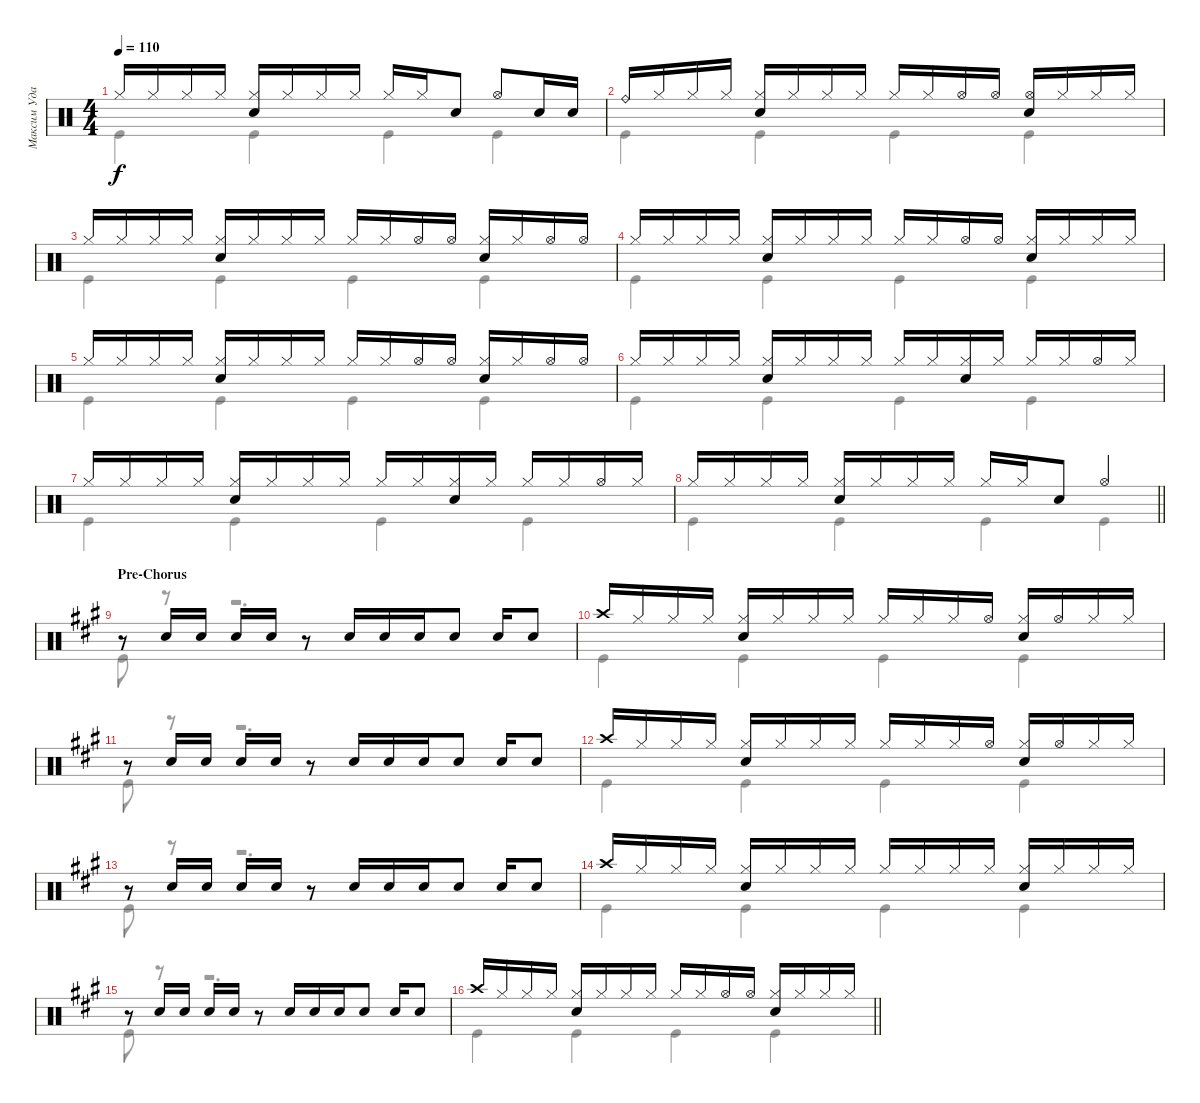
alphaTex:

\track ("Максим Удалов" "Максим Уда") {instrument percussion}
\staff {score}
\articulation defaults
\voice
\ts (4 4)
\tempo 110
\clef neutral
\ks c "Hi-Hat (closed)".16{dy f} "Hi-Hat (closed)".16 "Hi-Hat (closed)".16 "Hi-Hat (closed)".16
("Hi-Hat (closed)" "Snare (hit) 2").16 "Hi-Hat (closed)".16 "Hi-Hat (closed)".16 "Hi-Hat (closed)".16 "Hi-Hat (closed)".16 "Hi-Hat (closed)".16 "Snare (hit) 2".8 "Hi-Hat (open)".8 "Snare (hit) 2".16 "Snare (hit) 2".16 |
"Ride (bell)".16 "Hi-Hat (closed)".16 "Hi-Hat (closed)".16 "Hi-Hat (closed)".16 ("Hi-Hat (closed)" "Snare (hit) 2").16 "Hi-Hat (closed)".16 "Hi-Hat (closed)".16 "Hi-Hat (closed)".16 "Hi-Hat (closed)".16 "Hi-Hat (closed)".16 "Hi-Hat (open)".16 "Hi-Hat (open)".16 ("Hi-Hat (open)" "Snare (hit) 2").16 "Hi-Hat (closed)".16 "Hi-Hat (closed)".16 "Hi-Hat (closed)".16 |
"Hi-Hat (closed)".16 "Hi-Hat (closed)".16 "Hi-Hat (closed)".16 "Hi-Hat (closed)".16 ("Hi-Hat (closed)" "Snare (hit) 2").16 "Hi-Hat (closed)".16 "Hi-Hat (closed)".16 "Hi-Hat (closed)".16 "Hi-Hat (closed)".16 "Hi-Hat (closed)".16 "Hi-Hat (open)".16 "Hi-Hat (open)".16 ("Snare (hit) 2" "Hi-Hat (closed)").16 "Hi-Hat (closed)".16 "Hi-Hat (open)".16 "Hi-Hat (open)".16 |
"Hi-Hat (closed)".16 "Hi-Hat (closed)".16 "Hi-Hat (closed)".16 "Hi-Hat (closed)".16 ("Hi-Hat (closed)" "Snare (hit) 2").16 "Hi-Hat (closed)".16 "Hi-Hat (closed)".16 "Hi-Hat (closed)".16 "Hi-Hat (closed)".16 "Hi-Hat (closed)".16 "Hi-Hat (open)".16 "Hi-Hat (open)".16 ("Snare (hit) 2" "Hi-Hat (closed)").16 "Hi-Hat (closed)".16 "Hi-Hat (closed)".16 "Hi-Hat (closed)".16 |
"Hi-Hat (closed)".16 "Hi-Hat (closed)".16 "Hi-Hat (closed)".16 "Hi-Hat (closed)".16 ("Hi-Hat (closed)" "Snare (hit) 2").16 "Hi-Hat (closed)".16 "Hi-Hat (closed)".16 "Hi-Hat (closed)".16 "Hi-Hat (closed)".16 "Hi-Hat (closed)".16 "Hi-Hat (open)".16 "Hi-Hat (open)".16 ("Snare (hit) 2" "Hi-Hat (closed)").16 "Hi-Hat (closed)".16 "Hi-Hat (open)".16 "Hi-Hat (open)".16 |
"Hi-Hat (closed)".16 "Hi-Hat (closed)".16 "Hi-Hat (closed)".16 "Hi-Hat (closed)".16 ("Hi-Hat (closed)" "Snare (hit) 2").16 "Hi-Hat (closed)".16 "Hi-Hat (closed)".16 "Hi-Hat (closed)".16 "Hi-Hat (closed)".16 "Hi-Hat (closed)".16 ("Hi-Hat (closed)" "Snare (hit) 2").16 "Hi-Hat (closed)".16 "Hi-Hat (closed)".16 "Hi-Hat (closed)".16 "Hi-Hat (open)".16 "Hi-Hat (closed)".16 |
"Hi-Hat (closed)".16 "Hi-Hat (closed)".16 "Hi-Hat (closed)".16 "Hi-Hat (closed)".16 ("Hi-Hat (closed)" "Snare (hit) 2").16 "Hi-Hat (closed)".16 "Hi-Hat (closed)".16 "Hi-Hat (closed)".16 "Hi-Hat (closed)".16 "Hi-Hat (closed)".16 ("Hi-Hat (closed)" "Snare (hit) 2").16 "Hi-Hat (closed)".16 "Hi-Hat (closed)".16 "Hi-Hat (closed)".16 "Hi-Hat (open)".16 "Hi-Hat (closed)".16 |
\barLineRight lightlight "Hi-Hat (closed)".16 "Hi-Hat (closed)".16 "Hi-Hat (closed)".16 "Hi-Hat (closed)".16
("Hi-Hat (closed)" "Snare (hit) 2").16 "Hi-Hat (closed)".16 "Hi-Hat (closed)".16 "Hi-Hat (closed)".16 "Hi-Hat (closed)".16 "Hi-Hat (closed)".16 "Snare (hit) 2".8 "Hi-Hat (open)".4 |
\section ("" "Pre-Chorus")
\ks a
r.8 "Snare (hit) 2".16 "Snare (hit) 2".16 "Snare (hit) 2".16 "Snare (hit) 2".16 r.8 "Snare (hit) 2".16 "Snare (hit) 2".16 "Snare (hit) 2".16 "Snare (hit) 2".8 "Snare (hit) 2".16 "Snare (hit) 2".8 |
"Crash high (hit)".16 "Hi-Hat (closed)".16 "Hi-Hat (closed)".16 "Hi-Hat (closed)".16 ("Hi-Hat (closed)" "Snare (hit) 2").16 "Hi-Hat (closed)".16 "Hi-Hat (closed)".16 "Hi-Hat (closed)".16 "Hi-Hat (closed)".16 "Hi-Hat (closed)".16 "Hi-Hat (closed)".16 "Hi-Hat (open)".16 ("Hi-Hat (closed)" "Snare (hit) 2").16 "Hi-Hat (open)".16 "Hi-Hat (closed)".16 "Hi-Hat (closed)".16 |
r.8 "Snare (hit) 2".16 "Snare (hit) 2".16 "Snare (hit) 2".16 "Snare (hit) 2".16 r.8 "Snare (hit) 2".16 "Snare (hit) 2".16 "Snare (hit) 2".16 "Snare (hit) 2".8 "Snare (hit) 2".16 "Snare (hit) 2".8 |
"Crash high (hit)".16 "Hi-Hat (closed)".16 "Hi-Hat (closed)".16 "Hi-Hat (closed)".16 ("Hi-Hat (closed)" "Snare (hit) 2").16 "Hi-Hat (closed)".16 "Hi-Hat (closed)".16 "Hi-Hat (closed)".16 "Hi-Hat (closed)".16 "Hi-Hat (closed)".16 "Hi-Hat (closed)".16 "Hi-Hat (open)".16 ("Hi-Hat (closed)" "Snare (hit) 2").16 "Hi-Hat (open)".16 "Hi-Hat (closed)".16 "Hi-Hat (closed)".16 |
r.8 "Snare (hit) 2".16 "Snare (hit) 2".16 "Snare (hit) 2".16 "Snare (hit) 2".16 r.8 "Snare (hit) 2".16 "Snare (hit) 2".16 "Snare (hit) 2".16 "Snare (hit) 2".8 "Snare (hit) 2".16 "Snare (hit) 2".8 |
"Crash high (hit)".16 "Hi-Hat (closed)".16 "Hi-Hat (closed)".16 "Hi-Hat (closed)".16 ("Hi-Hat (closed)" "Snare (hit) 2").16 "Hi-Hat (closed)".16 "Hi-Hat (closed)".16 "Hi-Hat (closed)".16 "Hi-Hat (closed)".16 "Hi-Hat (closed)".16 "Hi-Hat (closed)".16 "Hi-Hat (closed)".16 ("Hi-Hat (closed)" "Snare (hit) 2").16 "Hi-Hat (closed)".16 "Hi-Hat (closed)".16 "Hi-Hat (closed)".16 |
r.8 "Snare (hit) 2".16 "Snare (hit) 2".16 "Snare (hit) 2".16 "Snare (hit) 2".16 r.8 "Snare (hit) 2".16 "Snare (hit) 2".16 "Snare (hit) 2".16 "Snare (hit) 2".8 "Snare (hit) 2".16 "Snare (hit) 2".8 |
\barLineRight lightlight "Crash high (hit)".16 "Hi-Hat (closed)".16 "Hi-Hat (closed)".16 "Hi-Hat (closed)".16
("Hi-Hat (closed)" "Snare (hit) 2").16 "Hi-Hat (closed)".16 "Hi-Hat (closed)".16 "Hi-Hat (closed)".16 "Hi-Hat (closed)".16 "Hi-Hat (closed)".16 "Hi-Hat (open)".16 "Hi-Hat (open)".16 ("Hi-Hat (closed)" "Snare (hit) 2").16 "Hi-Hat (closed)".16 "Hi-Hat (closed)".16 "Hi-Hat (closed)".16
\voice
\clef neutral
\ottava regular
\simile none
\ks c "Kick (hit)".4{dy f} "Kick (hit)".4 "Kick (hit)".4 "Kick (hit)".4
|
"Kick (hit)".4 "Kick (hit)".4 "Kick (hit)".4 "Kick (hit)".4 |
"Kick (hit)".4 "Kick (hit)".4 "Kick (hit)".4 "Kick (hit)".4 |
"Kick (hit)".4 "Kick (hit)".4 "Kick (hit)".4 "Kick (hit)".4 |
"Kick (hit)".4 "Kick (hit)".4 "Kick (hit)".4 "Kick (hit)".4 |
"Kick (hit)".4 "Kick (hit)".4 "Kick (hit)".4 "Kick (hit)".4 |
"Kick (hit)".4 "Kick (hit)".4 "Kick (hit)".4 "Kick (hit)".4 |
\barLineRight lightlight "Kick (hit)".4 "Kick (hit)".4 "Kick (hit)".4 "Kick (hit)".4
|
\ks a "Kick (hit)".8
r.8 r.2{d} |
"Kick (hit)".4 "Kick (hit)".4 "Kick (hit)".4 "Kick (hit)".4 |
"Kick (hit)".8 r.8 r.2{d} |
"Kick (hit)".4 "Kick (hit)".4 "Kick (hit)".4 "Kick (hit)".4 |
"Kick (hit)".8 r.8 r.2{d} |
"Kick (hit)".4 "Kick (hit)".4 "Kick (hit)".4 "Kick (hit)".4 |
"Kick (hit)".8 r.8 r.2{d} |
\barLineRight lightlight "Kick (hit)".4 "Kick (hit)".4 "Kick (hit)".4 "Kick (hit)".4
